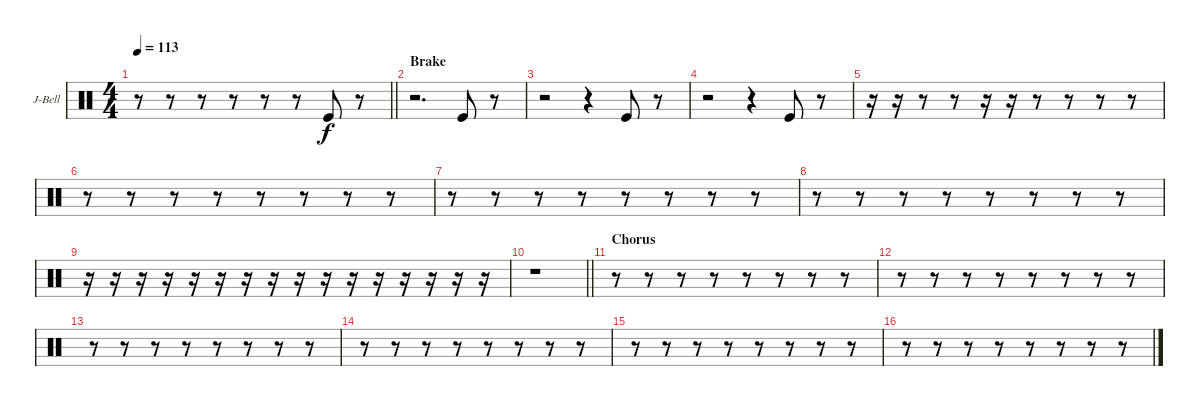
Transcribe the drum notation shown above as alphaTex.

\bracketExtendMode groupsimilarinstruments
\firstSystemTrackNameOrientation horizontal
\otherSystemsTrackNameOrientation horizontal
\track ("Jingle Bell" "J-Bell") {instrument percussion}
\staff {score}
\articulation defaults
\ts (4 4)
\tempo 113
\clef neutral
\barLineRight lightlight
\ks c
r.8{dy f} r.8 r.8 r.8 r.8 r.8 "Kick (hit)".8 r.8 |
\section ("" "Brake")
r.2{d} "Kick (hit)".8 r.8 |
r.2 r.4 "Kick (hit)".8 r.8 |
r.2 r.4 "Kick (hit)".8 r.8 |
r.16 r.16 r.8 r.8 r.16 r.16 r.8 r.8 r.8 r.8 |
r.8 r.8 r.8 r.8 r.8 r.8 r.8 r.8 |
r.8 r.8 r.8 r.8 r.8 r.8 r.8 r.8 |
r.8 r.8 r.8 r.8 r.8 r.8 r.8 r.8 |
r.16 r.16 r.16 r.16 r.16 r.16 r.16 r.16 r.16 r.16 r.16 r.16 r.16 r.16 r.16 r.16 |
\barLineRight lightlight
r.1 |
\section ("" "Chorus")
r.8 r.8 r.8 r.8 r.8 r.8 r.8 r.8 |
r.8 r.8 r.8 r.8 r.8 r.8 r.8 r.8 |
r.8 r.8 r.8 r.8 r.8 r.8 r.8 r.8 |
r.8 r.8 r.8 r.8 r.8 r.8 r.8 r.8 |
r.8 r.8 r.8 r.8 r.8 r.8 r.8 r.8 |
r.8 r.8 r.8 r.8 r.8 r.8 r.8 r.8
